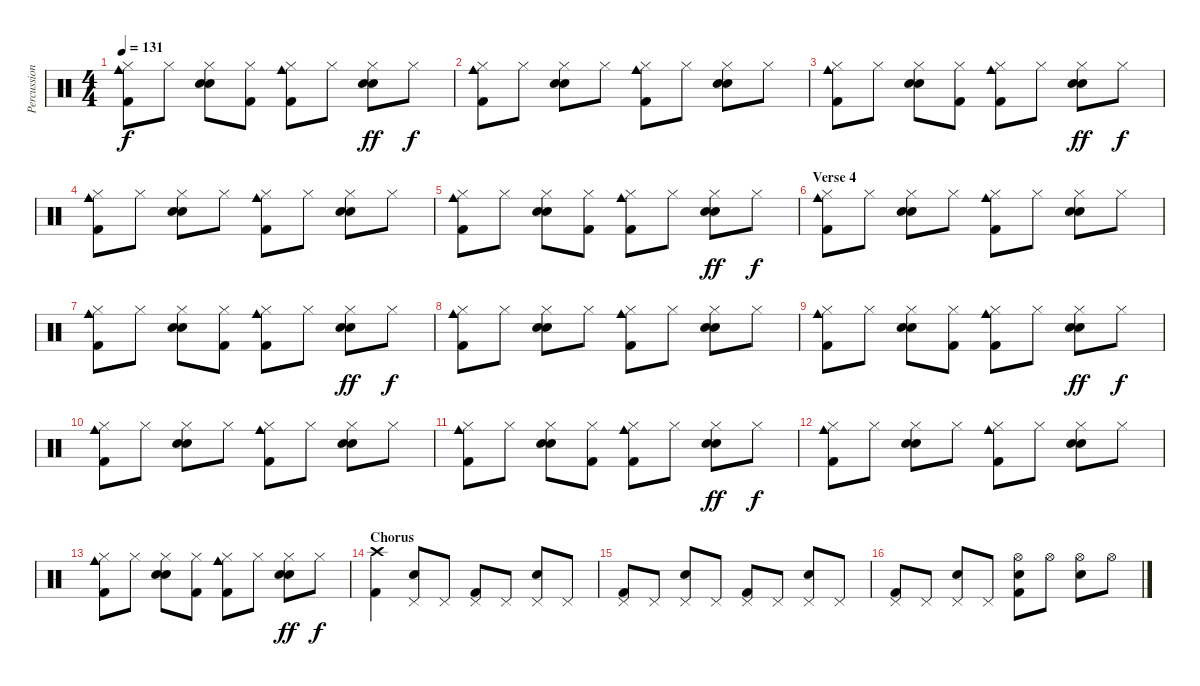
\track ("Percussion" "Percussion") {instrument percussion}
\staff {score}
\articulation defaults
\ts (4 4)
\tempo 131
\clef neutral
\ks c
("Hi-Hat (closed)" "Cowbell medium (hit)" "Kick (hit) 2").8{dy f} "Hi-Hat (closed)".8 ("Hand Clap (hit)" "Hi-Hat (closed)" "Electric Snare (hit)").8 ("Hi-Hat (closed)" "Kick (hit) 2").8 ("Hi-Hat (closed)" "Cowbell medium (hit)" "Kick (hit) 2").8 "Hi-Hat (closed)".8 ("Hand Clap (hit)" "Hi-Hat (closed)" "Electric Snare (hit)").8{dy ff} "Hi-Hat (closed)".8{dy f} |
("Hi-Hat (closed)" "Cowbell medium (hit)" "Kick (hit) 2").8 "Hi-Hat (closed)".8 ("Hand Clap (hit)" "Hi-Hat (closed)" "Electric Snare (hit)").8 "Hi-Hat (closed)".8 ("Hi-Hat (closed)" "Cowbell medium (hit)" "Kick (hit) 2").8 "Hi-Hat (closed)".8 ("Hand Clap (hit)" "Hi-Hat (closed)" "Electric Snare (hit)").8 "Hi-Hat (closed)".8 |
("Hi-Hat (closed)" "Cowbell medium (hit)" "Kick (hit) 2").8 "Hi-Hat (closed)".8 ("Hand Clap (hit)" "Hi-Hat (closed)" "Electric Snare (hit)").8 ("Hi-Hat (closed)" "Kick (hit) 2").8 ("Hi-Hat (closed)" "Cowbell medium (hit)" "Kick (hit) 2").8 "Hi-Hat (closed)".8 ("Hand Clap (hit)" "Hi-Hat (closed)" "Electric Snare (hit)").8{dy ff} "Hi-Hat (closed)".8{dy f} |
("Hi-Hat (closed)" "Cowbell medium (hit)" "Kick (hit) 2").8 "Hi-Hat (closed)".8 ("Hand Clap (hit)" "Hi-Hat (closed)" "Electric Snare (hit)").8 "Hi-Hat (closed)".8 ("Hi-Hat (closed)" "Cowbell medium (hit)" "Kick (hit) 2").8 "Hi-Hat (closed)".8 ("Hand Clap (hit)" "Hi-Hat (closed)" "Electric Snare (hit)").8 "Hi-Hat (closed)".8 |
("Hi-Hat (closed)" "Cowbell medium (hit)" "Kick (hit) 2").8 "Hi-Hat (closed)".8 ("Hand Clap (hit)" "Hi-Hat (closed)" "Electric Snare (hit)").8 ("Hi-Hat (closed)" "Kick (hit) 2").8 ("Hi-Hat (closed)" "Cowbell medium (hit)" "Kick (hit) 2").8 "Hi-Hat (closed)".8 ("Hand Clap (hit)" "Hi-Hat (closed)" "Electric Snare (hit)").8{dy ff} "Hi-Hat (closed)".8{dy f} |
\section ("" "Verse 4")
("Hi-Hat (closed)" "Cowbell medium (hit)" "Kick (hit) 2").8 "Hi-Hat (closed)".8 ("Hand Clap (hit)" "Hi-Hat (closed)" "Electric Snare (hit)").8 "Hi-Hat (closed)".8 ("Hi-Hat (closed)" "Cowbell medium (hit)" "Kick (hit) 2").8 "Hi-Hat (closed)".8 ("Hand Clap (hit)" "Hi-Hat (closed)" "Electric Snare (hit)").8 "Hi-Hat (closed)".8 |
("Hi-Hat (closed)" "Cowbell medium (hit)" "Kick (hit) 2").8 "Hi-Hat (closed)".8 ("Hand Clap (hit)" "Hi-Hat (closed)" "Electric Snare (hit)").8 ("Hi-Hat (closed)" "Kick (hit) 2").8 ("Hi-Hat (closed)" "Cowbell medium (hit)" "Kick (hit) 2").8 "Hi-Hat (closed)".8 ("Hand Clap (hit)" "Hi-Hat (closed)" "Electric Snare (hit)").8{dy ff} "Hi-Hat (closed)".8{dy f} |
("Hi-Hat (closed)" "Cowbell medium (hit)" "Kick (hit) 2").8 "Hi-Hat (closed)".8 ("Hand Clap (hit)" "Hi-Hat (closed)" "Electric Snare (hit)").8 "Hi-Hat (closed)".8 ("Hi-Hat (closed)" "Cowbell medium (hit)" "Kick (hit) 2").8 "Hi-Hat (closed)".8 ("Hand Clap (hit)" "Hi-Hat (closed)" "Electric Snare (hit)").8 "Hi-Hat (closed)".8 |
("Hi-Hat (closed)" "Cowbell medium (hit)" "Kick (hit) 2").8 "Hi-Hat (closed)".8 ("Hand Clap (hit)" "Hi-Hat (closed)" "Electric Snare (hit)").8 ("Hi-Hat (closed)" "Kick (hit) 2").8 ("Hi-Hat (closed)" "Cowbell medium (hit)" "Kick (hit) 2").8 "Hi-Hat (closed)".8 ("Hand Clap (hit)" "Hi-Hat (closed)" "Electric Snare (hit)").8{dy ff} "Hi-Hat (closed)".8{dy f} |
("Hi-Hat (closed)" "Cowbell medium (hit)" "Kick (hit) 2").8 "Hi-Hat (closed)".8 ("Hand Clap (hit)" "Hi-Hat (closed)" "Electric Snare (hit)").8 "Hi-Hat (closed)".8 ("Hi-Hat (closed)" "Cowbell medium (hit)" "Kick (hit) 2").8 "Hi-Hat (closed)".8 ("Hand Clap (hit)" "Hi-Hat (closed)" "Electric Snare (hit)").8 "Hi-Hat (closed)".8 |
("Hi-Hat (closed)" "Cowbell medium (hit)" "Kick (hit) 2").8 "Hi-Hat (closed)".8 ("Hand Clap (hit)" "Hi-Hat (closed)" "Electric Snare (hit)").8 ("Hi-Hat (closed)" "Kick (hit) 2").8 ("Hi-Hat (closed)" "Cowbell medium (hit)" "Kick (hit) 2").8 "Hi-Hat (closed)".8 ("Hand Clap (hit)" "Hi-Hat (closed)" "Electric Snare (hit)").8{dy ff} "Hi-Hat (closed)".8{dy f} |
("Hi-Hat (closed)" "Cowbell medium (hit)" "Kick (hit) 2").8 "Hi-Hat (closed)".8 ("Hand Clap (hit)" "Hi-Hat (closed)" "Electric Snare (hit)").8 "Hi-Hat (closed)".8 ("Hi-Hat (closed)" "Cowbell medium (hit)" "Kick (hit) 2").8 "Hi-Hat (closed)".8 ("Hand Clap (hit)" "Hi-Hat (closed)" "Electric Snare (hit)").8 "Hi-Hat (closed)".8 |
("Hi-Hat (closed)" "Cowbell medium (hit)" "Kick (hit) 2").8 "Hi-Hat (closed)".8 ("Hand Clap (hit)" "Hi-Hat (closed)" "Electric Snare (hit)").8 ("Hi-Hat (closed)" "Kick (hit) 2").8 ("Hi-Hat (closed)" "Cowbell medium (hit)" "Kick (hit) 2").8 "Hi-Hat (closed)".8 ("Hand Clap (hit)" "Hi-Hat (closed)" "Electric Snare (hit)").8{dy ff} "Hi-Hat (closed)".8{dy f} |
\section ("" "Chorus")
("Crash high (hit)" "Kick (hit) 2").4 ("Pedal Hi-Hat (hit)" "Electric Snare (hit)").8 "Pedal Hi-Hat (hit)".8 ("Pedal Hi-Hat (hit)" "Kick (hit) 2").8 "Pedal Hi-Hat (hit)".8 ("Pedal Hi-Hat (hit)" "Electric Snare (hit)").8 "Pedal Hi-Hat (hit)".8 |
("Pedal Hi-Hat (hit)" "Kick (hit) 2").8 "Pedal Hi-Hat (hit)".8 ("Pedal Hi-Hat (hit)" "Electric Snare (hit)").8 "Pedal Hi-Hat (hit)".8 ("Pedal Hi-Hat (hit)" "Kick (hit) 2").8 "Pedal Hi-Hat (hit)".8 ("Pedal Hi-Hat (hit)" "Electric Snare (hit)").8 "Pedal Hi-Hat (hit)".8 |
("Pedal Hi-Hat (hit)" "Kick (hit) 2").8 "Pedal Hi-Hat (hit)".8 ("Pedal Hi-Hat (hit)" "Electric Snare (hit)").8 "Pedal Hi-Hat (hit)".8 ("Hi-Hat (open)" "Electric Snare (hit)" "Kick (hit) 2").8 "Hi-Hat (open)".8 ("Hi-Hat (open)" "Electric Snare (hit)").8 "Hi-Hat (open)".8
